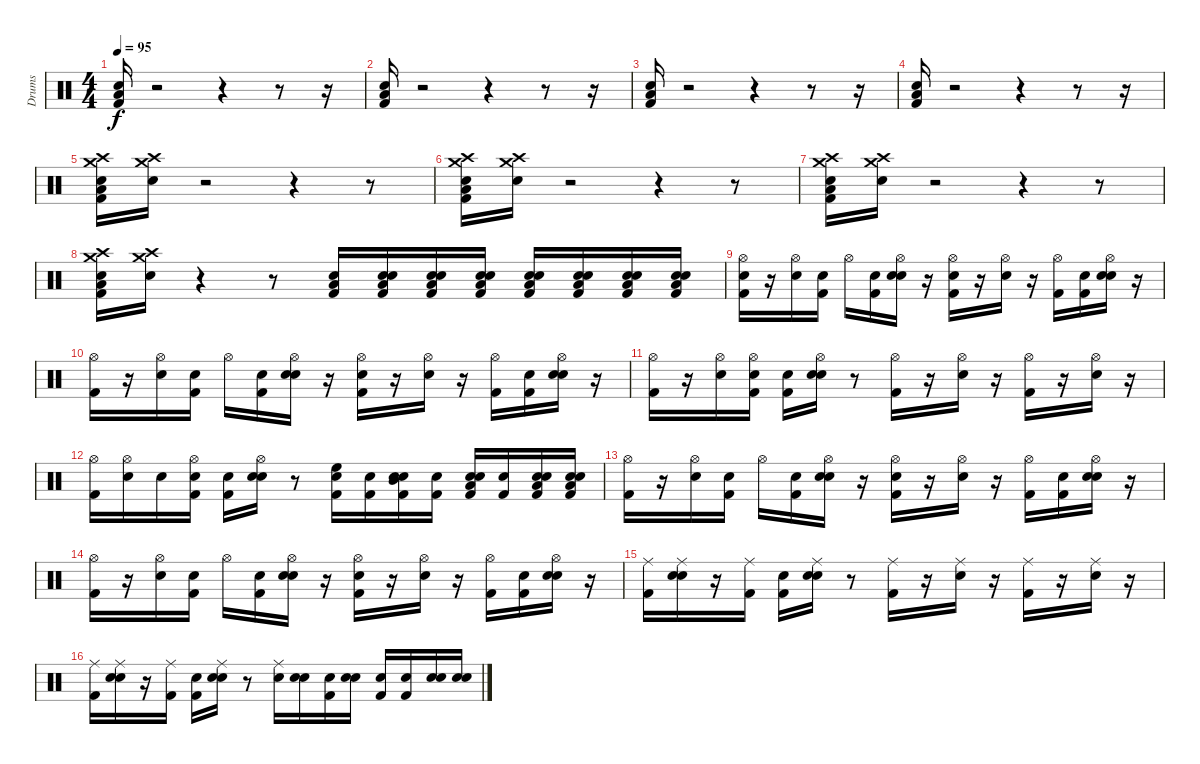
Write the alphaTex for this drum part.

\track ("Drums" "Drums") {instrument percussion}
\staff {score}
\articulation defaults
\ts (4 4)
\tempo 95
\clef neutral
\ks c
("Kick (hit) 2" "Low Floor Tom (hit)" "Electric Snare (hit)").16{dy f} r.2 r.4 r.8 r.16 |
("Kick (hit) 2" "Low Floor Tom (hit)" "Electric Snare (hit)").16 r.2 r.4 r.8 r.16 |
("Kick (hit) 2" "Low Floor Tom (hit)" "Electric Snare (hit)").16 r.2 r.4 r.8 r.16 |
("Kick (hit) 2" "Low Floor Tom (hit)" "Electric Snare (hit)").16 r.2 r.4 r.8 r.16 |
("Kick (hit) 2" "Electric Snare (hit)" "Low Floor Tom (hit)" "Crash medium (hit)" "Crash high (hit)").16 ("Snare (hit)" "Crash medium (hit)" "Crash high (hit)").16 r.2 r.4 r.8 |
("Kick (hit) 2" "Low Floor Tom (hit)" "Electric Snare (hit)" "Crash medium (hit)" "Crash high (hit)").16 ("Snare (hit)" "Crash medium (hit)" "Crash high (hit)").16 r.2 r.4 r.8 |
("Kick (hit) 2" "Electric Snare (hit)" "Low Floor Tom (hit)" "Crash high (hit)" "Crash medium (hit)").16 ("Snare (hit)" "Crash high (hit)" "Crash medium (hit)").16 r.2 r.4 r.8 |
("Kick (hit) 2" "Low Floor Tom (hit)" "Electric Snare (hit)" "Crash high (hit)" "Crash medium (hit)").16 ("Snare (hit)" "Crash high (hit)" "Crash medium (hit)").16 r.4 r.8 ("Low Floor Tom (hit)" "Electric Snare (hit)" "Kick (hit) 2").16 ("Snare (hit)" "Kick (hit) 2" "Low Floor Tom (hit)" "Electric Snare (hit)").16 ("Snare (hit)" "Kick (hit) 2" "Electric Snare (hit)" "Low Floor Tom (hit)").16 ("Snare (hit)" "Kick (hit) 2" "Low Floor Tom (hit)" "Electric Snare (hit)").16 ("Snare (hit)" "Kick (hit) 2" "Low Floor Tom (hit)" "Electric Snare (hit)").16 ("Snare (hit)" "Kick (hit) 2" "Electric Snare (hit)" "Low Floor Tom (hit)").16 ("Snare (hit)" "Kick (hit) 2" "Electric Snare (hit)" "Low Floor Tom (hit)").16 ("Snare (hit)" "Kick (hit) 2" "Low Floor Tom (hit)" "Electric Snare (hit)").16 |
("Snare (hit)" "Kick (hit) 2" "Hi-Hat (open)").16 r.16 ("Electric Snare (hit)" "Hi-Hat (open)").16 ("Snare (hit)" "Kick (hit) 2").16 "Hi-Hat (open)".16 ("Snare (hit)" "Kick (hit) 2").16 ("Snare (hit)" "Electric Snare (hit)" "Hi-Hat (open)").16 r.16 ("Snare (hit)" "Kick (hit) 2" "Hi-Hat (open)").16 r.16 ("Electric Snare (hit)" "Hi-Hat (open)").16 r.16 ("Kick (hit) 2" "Hi-Hat (open)").16 ("Snare (hit)" "Kick (hit) 2").16 ("Snare (hit)" "Electric Snare (hit)" "Hi-Hat (open)").16 r.16 |
("Kick (hit) 2" "Hi-Hat (open)").16 r.16 ("Electric Snare (hit)" "Hi-Hat (open)").16 ("Snare (hit)" "Kick (hit) 2").16 "Hi-Hat (open)".16 ("Snare (hit)" "Kick (hit) 2").16 ("Snare (hit)" "Electric Snare (hit)" "Hi-Hat (open)").16 r.16 ("Snare (hit)" "Kick (hit) 2" "Hi-Hat (open)").16 r.16 ("Electric Snare (hit)" "Hi-Hat (open)").16 r.16 ("Hi-Hat (open)" "Kick (hit) 2").16 ("Snare (hit)" "Kick (hit) 2").16 ("Snare (hit)" "Electric Snare (hit)" "Hi-Hat (open)").16 r.16 |
("Hi-Hat (open)" "Kick (hit) 2").16 r.16 ("Hi-Hat (open)" "Electric Snare (hit)").16 ("Snare (hit)" "Hi-Hat (open)" "Kick (hit) 2").16 ("Snare (hit)" "Kick (hit) 2").16 ("Snare (hit)" "Hi-Hat (open)" "Electric Snare (hit)").16 r.8 ("Kick (hit) 2" "Hi-Hat (open)").16 r.16 ("Electric Snare (hit)" "Hi-Hat (open)").16 r.16 ("Kick (hit) 2" "Hi-Hat (open)").16 r.16 ("Electric Snare (hit)" "Hi-Hat (open)").16 r.16 |
("Kick (hit) 2" "Hi-Hat (open)").16 ("Snare (hit)" "Hi-Hat (open)").16 "Electric Snare (hit)".16 ("Snare (hit)" "Hi-Hat (open)" "Kick (hit) 2").16 ("Snare (hit)" "Kick (hit) 2").16 ("Snare (hit)" "Electric Snare (hit)" "Hi-Hat (open)").16 r.8 ("Kick (hit) 2" "High Floor Tom (hit)" "Electric Snare (hit)").16 ("Snare (hit)" "Kick (hit) 2").16 ("Snare (hit)" "Kick (hit) 2" "Electric Snare (hit)" "Mid Tom (hit)").16 ("Snare (hit)" "Kick (hit) 2").16 ("Snare (hit)" "Kick (hit) 2" "Low Tom (hit)" "Electric Snare (hit)").16 ("Snare (hit)" "Kick (hit) 2").16 ("Snare (hit)" "Kick (hit) 2" "Electric Snare (hit)" "Low Floor Tom (hit)").16 ("Snare (hit)" "Kick (hit) 2" "Electric Snare (hit)" "Low Floor Tom (hit)").16 |
("Kick (hit) 2" "Hi-Hat (open)").16 r.16 ("Electric Snare (hit)" "Hi-Hat (open)").16 ("Snare (hit)" "Kick (hit) 2").16 "Hi-Hat (open)".16 ("Snare (hit)" "Kick (hit) 2").16 ("Snare (hit)" "Electric Snare (hit)" "Hi-Hat (open)").16 r.16 ("Snare (hit)" "Kick (hit) 2" "Hi-Hat (open)").16 r.16 ("Electric Snare (hit)" "Hi-Hat (open)").16 r.16 ("Hi-Hat (open)" "Kick (hit) 2").16 ("Snare (hit)" "Kick (hit) 2").16 ("Snare (hit)" "Electric Snare (hit)" "Hi-Hat (open)").16 r.16 |
("Kick (hit) 2" "Hi-Hat (open)").16 r.16 ("Electric Snare (hit)" "Hi-Hat (open)").16 ("Snare (hit)" "Kick (hit) 2").16 "Hi-Hat (open)".16 ("Snare (hit)" "Kick (hit) 2").16 ("Snare (hit)" "Electric Snare (hit)" "Hi-Hat (open)").16 r.16 ("Snare (hit)" "Kick (hit) 2" "Hi-Hat (open)").16 r.16 ("Electric Snare (hit)" "Hi-Hat (open)").16 r.16 ("Hi-Hat (open)" "Kick (hit) 2").16 ("Snare (hit)" "Kick (hit) 2").16 ("Snare (hit)" "Electric Snare (hit)" "Hi-Hat (open)").16 r.16 |
("Kick (hit) 2" "Ride (middle)").16 ("Snare (hit)" "Electric Snare (hit)" "Ride (middle)").16 r.16 ("Kick (hit) 2" "Ride (middle)").16 ("Snare (hit)" "Kick (hit) 2").16 ("Snare (hit)" "Electric Snare (hit)" "Ride (middle)").16 r.8 ("Kick (hit) 2" "Ride (middle)").16 r.16 ("Electric Snare (hit)" "Ride (middle)").16 r.16 ("Kick (hit) 2" "Ride (middle)").16 r.16 ("Electric Snare (hit)" "Ride (middle)").16 r.16 |
("Kick (hit) 2" "Ride (middle)").16 ("Snare (hit)" "Electric Snare (hit)" "Ride (middle)").16 r.16 ("Kick (hit) 2" "Ride (middle)").16 ("Snare (hit)" "Kick (hit) 2").16 ("Snare (hit)" "Electric Snare (hit)" "Ride (middle)").16 r.8 ("Ride (middle)" "Electric Snare (hit)").16 ("Snare (hit)" "Electric Snare (hit)").16 ("Snare (hit)" "Kick (hit) 2").16 ("Snare (hit)" "Electric Snare (hit)").16 ("Snare (hit)" "Kick (hit) 2").16 ("Snare (hit)" "Kick (hit) 2").16 ("Snare (hit)" "Electric Snare (hit)").16 ("Snare (hit)" "Electric Snare (hit)").16
